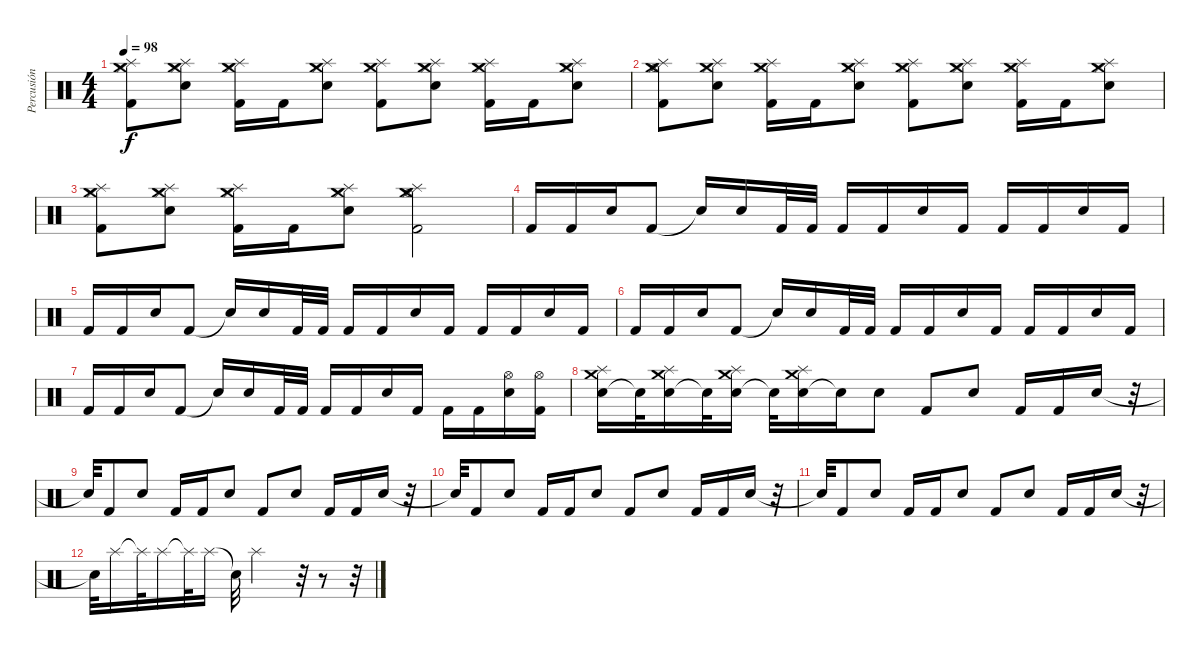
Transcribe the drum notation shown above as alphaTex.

\track ("Percusión" "Percusión") {instrument percussion}
\staff {score}
\articulation defaults
\ts (4 4)
\tempo 98
\clef neutral
\ks c
("Hi-Hat (closed)" "Crash medium (hit)" "Splash (hit)" "Kick (hit) 2").8{dy f} ("Hi-Hat (closed)" "Crash medium (hit)" "Splash (hit)" "Snare (hit) 2").8 ("Hi-Hat (closed)" "Crash medium (hit)" "Splash (hit)" "Kick (hit) 2").16 "Kick (hit) 2".16 ("Hi-Hat (closed)" "Crash medium (hit)" "Splash (hit)" "Snare (hit) 2").8 ("Hi-Hat (closed)" "Crash medium (hit)" "Splash (hit)" "Kick (hit) 2").8 ("Hi-Hat (closed)" "Crash medium (hit)" "Splash (hit)" "Snare (hit) 2").8 ("Hi-Hat (closed)" "Crash medium (hit)" "Splash (hit)" "Kick (hit) 2").16 "Kick (hit) 2".16 ("Hi-Hat (closed)" "Crash medium (hit)" "Splash (hit)" "Snare (hit) 2").8 |
("Hi-Hat (closed)" "Crash medium (hit)" "Hi-Hat (open)" "Splash (hit)" "Kick (hit) 2").8 ("Hi-Hat (closed)" "Crash medium (hit)" "Splash (hit)" "Snare (hit) 2").8 ("Hi-Hat (closed)" "Crash medium (hit)" "Splash (hit)" "Kick (hit) 2").16 "Kick (hit) 2".16 ("Hi-Hat (closed)" "Crash medium (hit)" "Splash (hit)" "Snare (hit) 2").8 ("Hi-Hat (closed)" "Crash medium (hit)" "Splash (hit)" "Kick (hit) 2").8 ("Hi-Hat (closed)" "Crash medium (hit)" "Splash (hit)" "Snare (hit) 2").8 ("Hi-Hat (closed)" "Crash medium (hit)" "Splash (hit)" "Kick (hit) 2").16 "Kick (hit) 2".16 ("Hi-Hat (closed)" "Crash medium (hit)" "Splash (hit)" "Snare (hit) 2").8 |
("Hi-Hat (closed)" "Crash medium (hit)" "Splash (hit)" "Kick (hit) 2").8 ("Hi-Hat (closed)" "Crash medium (hit)" "Splash (hit)" "Snare (hit) 2").8 ("Hi-Hat (closed)" "Crash medium (hit)" "Splash (hit)" "Kick (hit) 2").16 "Kick (hit) 2".16 ("Hi-Hat (closed)" "Crash medium (hit)" "Splash (hit)" "Snare (hit) 2").8 ("Hi-Hat (closed)" "Crash medium (hit)" "Hi-Hat (open)" "Splash (hit)" "Kick (hit) 2").2 |
"Kick (hit) 2".16 "Kick (hit) 2".16 "Snare (hit) 2".16 "Kick (hit) 2".8 "Snare (hit) 2"{t}.16 "Snare (hit) 2".16 "Kick (hit) 2".32 "Kick (hit) 2".32 "Kick (hit) 2".16 "Kick (hit) 2".16 "Snare (hit) 2".16 "Kick (hit) 2".16 "Kick (hit) 2".16 "Kick (hit) 2".16 "Snare (hit) 2".16 "Kick (hit) 2".16 |
"Kick (hit) 2".16 "Kick (hit) 2".16 "Snare (hit) 2".16 "Kick (hit) 2".8 "Snare (hit) 2"{t}.16 "Snare (hit) 2".16 "Kick (hit) 2".32 "Kick (hit) 2".32 "Kick (hit) 2".16 "Kick (hit) 2".16 "Snare (hit) 2".16 "Kick (hit) 2".16 "Kick (hit) 2".16 "Kick (hit) 2".16 "Snare (hit) 2".16 "Kick (hit) 2".16 |
"Kick (hit) 2".16 "Kick (hit) 2".16 "Snare (hit) 2".16 "Kick (hit) 2".8 "Snare (hit) 2"{t}.16 "Snare (hit) 2".16 "Kick (hit) 2".32 "Kick (hit) 2".32 "Kick (hit) 2".16 "Kick (hit) 2".16 "Snare (hit) 2".16 "Kick (hit) 2".16 "Kick (hit) 2".16 "Kick (hit) 2".16 "Snare (hit) 2".16 "Kick (hit) 2".16 |
"Kick (hit) 2".16 "Kick (hit) 2".16 "Snare (hit) 2".16 "Kick (hit) 2".8 "Snare (hit) 2"{t}.16 "Snare (hit) 2".16 "Kick (hit) 2".32 "Kick (hit) 2".32 "Kick (hit) 2".16 "Kick (hit) 2".16 "Snare (hit) 2".16 "Kick (hit) 2".16 "Kick (hit) 2".16 "Kick (hit) 2".16 ("Hi-Hat (open)" "Snare (hit) 2").16 ("Hi-Hat (open)" "Kick (hit) 2").16 |
("Snare (hit) 2" "Crash medium (hit)" "Splash (hit)").16 "Snare (hit)"{t}.32 ("Snare (hit) 2" "Crash medium (hit)" "Splash (hit)").16 "Snare (hit)"{t}.32 ("Snare (hit) 2" "Crash medium (hit)" "Splash (hit)").16 "Snare (hit)"{t}.32 ("Snare (hit) 2" "Crash medium (hit)" "Splash (hit)").16 "Snare (hit)"{t}.16 "Snare (hit) 2".8 "Kick (hit) 2".8 "Snare (hit) 2".8 "Kick (hit) 2".16 "Kick (hit) 2".16 "Snare (hit) 2".16 r.32 |
"Snare (hit) 2"{t}.32 "Kick (hit) 2".8 "Snare (hit) 2".8 "Kick (hit) 2".16 "Kick (hit) 2".16 "Snare (hit) 2".8 "Kick (hit) 2".8 "Snare (hit) 2".8 "Kick (hit) 2".16 "Kick (hit) 2".16 "Snare (hit) 2".16 r.32 |
"Snare (hit) 2"{t}.32 "Kick (hit) 2".8 "Snare (hit) 2".8 "Kick (hit) 2".16 "Kick (hit) 2".16 "Snare (hit) 2".8 "Kick (hit) 2".8 "Snare (hit) 2".8 "Kick (hit) 2".16 "Kick (hit) 2".16 "Snare (hit) 2".16 r.32 |
"Snare (hit) 2"{t}.32 "Kick (hit) 2".8 "Snare (hit) 2".8 "Kick (hit) 2".16 "Kick (hit) 2".16 "Snare (hit) 2".8 "Kick (hit) 2".8 "Snare (hit) 2".8 "Kick (hit) 2".16 "Kick (hit) 2".16 "Snare (hit) 2".16 r.32 |
"Snare (hit)"{t}.32 "Splash (hit)".16 "Splash (hit)"{t}.32 "Splash (hit)".16 "Splash (hit)"{t}.32 "Splash (hit)".16 "Snare (hit)"{t}.32 "Splash (hit)".2 r.32 r.8 r.32
